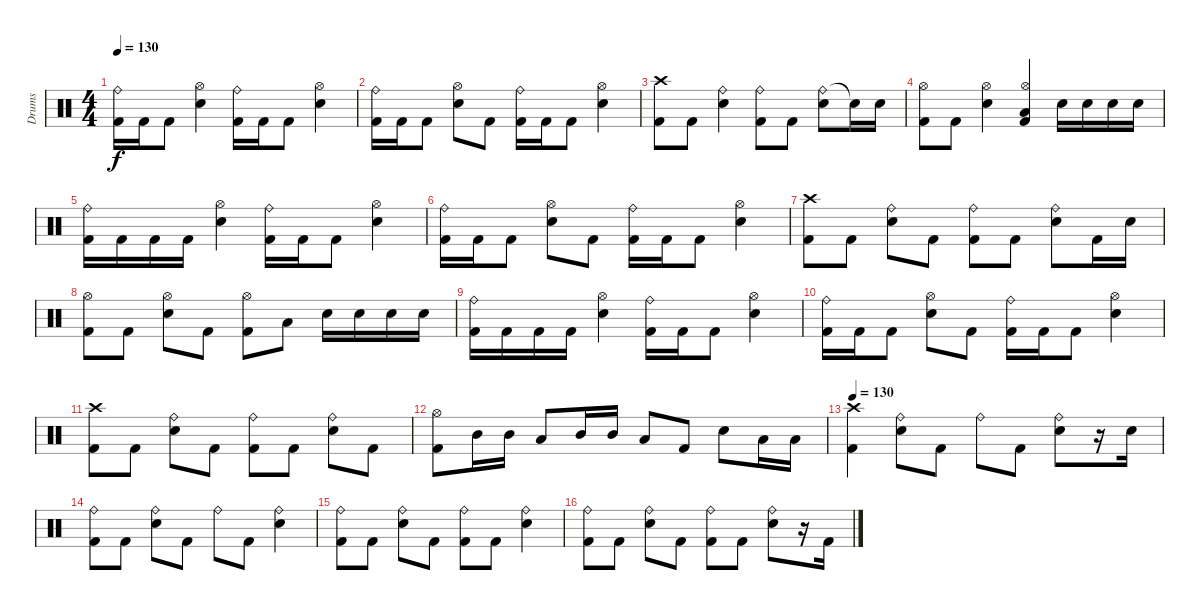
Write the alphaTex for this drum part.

\track ("Drums" "Drums") {instrument percussion}
\staff {score}
\articulation defaults
\ts (4 4)
\tempo 130
\clef neutral
\ks c
("Ride (bell)" "Kick (hit) 2").16{dy f} "Kick (hit) 2".16 "Kick (hit) 2".8 ("Hi-Hat (open)" "Electric Snare (hit)").4 ("Ride (bell)" "Kick (hit) 2").16 "Kick (hit) 2".16 "Kick (hit) 2".8 ("Hi-Hat (open)" "Electric Snare (hit)").4 |
("Ride (bell)" "Kick (hit) 2").16 "Kick (hit) 2".16 "Kick (hit) 2".8 ("Hi-Hat (open)" "Electric Snare (hit)").8 "Kick (hit) 2".8 ("Ride (bell)" "Kick (hit) 2").16 "Kick (hit) 2".16 "Kick (hit) 2".8 ("Hi-Hat (open)" "Electric Snare (hit)").4 |
("Crash high (hit)" "Kick (hit) 2").8 "Kick (hit) 2".8 ("Ride (bell)" "Electric Snare (hit)").4 ("Ride (bell)" "Kick (hit) 2").8 "Kick (hit) 2".8 ("Ride (bell)" "Electric Snare (hit)").8 "Snare (hit)"{t}.16 "Electric Snare (hit)".16 |
("Hi-Hat (open)" "Kick (hit) 2").8 "Kick (hit) 2".8 ("Hi-Hat (open)" "Electric Snare (hit)").4 ("Hi-Hat (open)" "Low Tom (hit)" "Kick (hit) 2").4 "Electric Snare (hit)".16 "Electric Snare (hit)".16 "Electric Snare (hit)".16 "Electric Snare (hit)".16 |
("Ride (bell)" "Kick (hit) 2").16 "Kick (hit) 2".16 "Kick (hit) 2".16 "Kick (hit) 2".16 ("Hi-Hat (open)" "Electric Snare (hit)").4 ("Ride (bell)" "Kick (hit) 2").16 "Kick (hit) 2".16 "Kick (hit) 2".8 ("Hi-Hat (open)" "Electric Snare (hit)").4 |
("Ride (bell)" "Kick (hit) 2").16 "Kick (hit) 2".16 "Kick (hit) 2".8 ("Hi-Hat (open)" "Electric Snare (hit)").8 "Kick (hit) 2".8 ("Ride (bell)" "Kick (hit) 2").16 "Kick (hit) 2".16 "Kick (hit) 2".8 ("Hi-Hat (open)" "Electric Snare (hit)").4 |
("Crash high (hit)" "Kick (hit) 2").8 "Kick (hit) 2".8 ("Ride (bell)" "Electric Snare (hit)").8 "Kick (hit) 2".8 ("Ride (bell)" "Kick (hit) 2").8 "Kick (hit) 2".8 ("Ride (bell)" "Electric Snare (hit)").8 "Kick (hit) 2".16 "Electric Snare (hit)".16 |
("Hi-Hat (open)" "Kick (hit) 2").8 "Kick (hit) 2".8 ("Hi-Hat (open)" "Electric Snare (hit)").8 "Kick (hit) 2".8 ("Hi-Hat (open)" "Kick (hit) 2").8 "Low Tom (hit)".8 "Electric Snare (hit)".16 "Electric Snare (hit)".16 "Electric Snare (hit)".16 "Electric Snare (hit)".16 |
("Ride (bell)" "Kick (hit) 2").16 "Kick (hit) 2".16 "Kick (hit) 2".16 "Kick (hit) 2".16 ("Hi-Hat (open)" "Electric Snare (hit)").4 ("Ride (bell)" "Kick (hit) 2").16 "Kick (hit) 2".16 "Kick (hit) 2".8 ("Hi-Hat (open)" "Electric Snare (hit)").4 |
("Ride (bell)" "Kick (hit) 2").16 "Kick (hit) 2".16 "Kick (hit) 2".8 ("Hi-Hat (open)" "Electric Snare (hit)").8 "Kick (hit) 2".8 ("Ride (bell)" "Kick (hit) 2").16 "Kick (hit) 2".16 "Kick (hit) 2".8 ("Hi-Hat (open)" "Electric Snare (hit)").4 |
("Crash high (hit)" "Kick (hit) 2").8 "Kick (hit) 2".8 ("Ride (bell)" "Electric Snare (hit)").8 "Kick (hit) 2".8 ("Ride (bell)" "Kick (hit) 2").8 "Kick (hit) 2".8 ("Ride (bell)" "Electric Snare (hit)").8 "Kick (hit) 2".8 |
("Hi-Hat (open)" "Kick (hit) 2").8 "Mid Tom (hit)".16 "Mid Tom (hit)".16 "Low Tom (hit)".8 "Mid Tom (hit)".16 "Mid Tom (hit)".16 "Low Tom (hit)".8 "Kick (hit) 2".8 "Electric Snare (hit)".8 "Low Tom (hit)".16 "Low Tom (hit)".16 |
\tempo 130
("Crash high (hit)" "Kick (hit) 2").4 ("Ride (bell)" "Electric Snare (hit)").8 "Kick (hit) 2".8 "Ride (bell)".8 "Kick (hit) 2".8 ("Ride (bell)" "Electric Snare (hit)").8 r.16 "Electric Snare (hit)".16 |
("Ride (bell)" "Kick (hit) 2").8 "Kick (hit) 2".8 ("Ride (bell)" "Electric Snare (hit)").8 "Kick (hit) 2".8 "Ride (bell)".8 "Kick (hit) 2".8 ("Ride (bell)" "Electric Snare (hit)").4 |
("Ride (bell)" "Kick (hit) 2").8 "Kick (hit) 2".8 ("Ride (bell)" "Electric Snare (hit)").8 "Kick (hit) 2".8 ("Ride (bell)" "Kick (hit) 2").8 "Kick (hit) 2".8 ("Ride (bell)" "Electric Snare (hit)").4 |
("Ride (bell)" "Kick (hit) 2").8 "Kick (hit) 2".8 ("Ride (bell)" "Electric Snare (hit)").8 "Kick (hit) 2".8 ("Ride (bell)" "Kick (hit) 2").8 "Kick (hit) 2".8 ("Ride (bell)" "Electric Snare (hit)").8 r.16 "Kick (hit) 2".16
